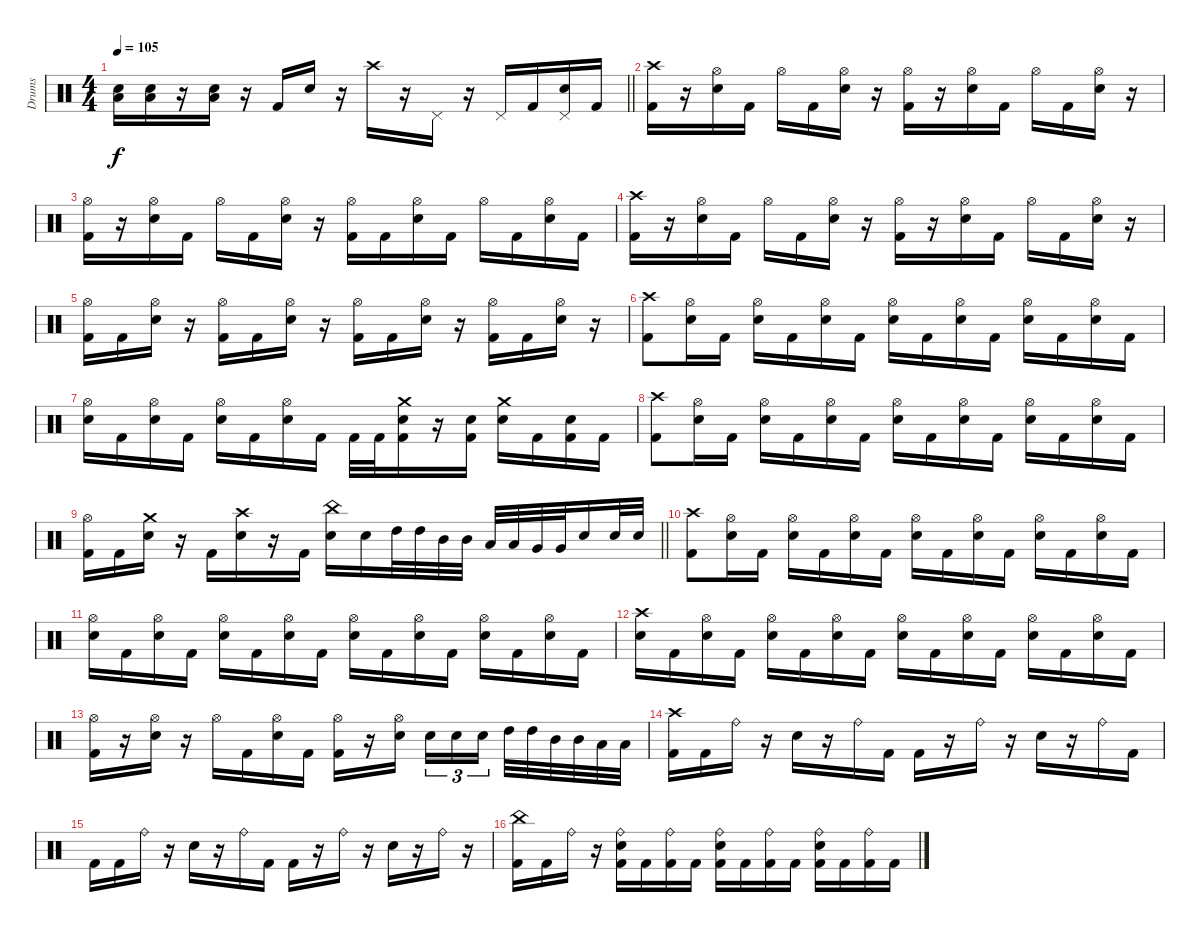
\track ("Drums" "Drums") {instrument percussion}
\staff
\articulation defaults
\ts (4 4)
\tempo 105
\clef neutral
\barLineRight lightlight
\ks c
("Low Floor Tom (hit)" "Electric Snare (hit)").16{dy f} ("Low Floor Tom (hit)" "Electric Snare (hit)").16 r.16 ("Low Floor Tom (hit)" "Electric Snare (hit)").16 r.16 "Kick (hit) 2".16 "Electric Snare (hit)".16 r.16 "Crash high (hit)".16 r.16 "Pedal Hi-Hat (hit)".16 r.16 "Pedal Hi-Hat (hit)".16 "Kick (hit) 2".16 ("Pedal Hi-Hat (hit)" "Electric Snare (hit)").16 "Kick (hit) 2".16 |
("Crash high (hit)" "Kick (hit) 2").16 r.16 ("Hi-Hat (open)" "Electric Snare (hit)").16 "Kick (hit) 2".16 "Hi-Hat (open)".16 "Kick (hit) 2".16 ("Hi-Hat (open)" "Electric Snare (hit)").16 r.16 ("Hi-Hat (open)" "Kick (hit) 2").16 r.16 ("Hi-Hat (open)" "Electric Snare (hit)").16 "Kick (hit) 2".16 "Hi-Hat (open)".16 "Kick (hit) 2".16 ("Hi-Hat (open)" "Electric Snare (hit)").16 r.16 |
("Hi-Hat (open)" "Kick (hit) 2").16 r.16 ("Hi-Hat (open)" "Electric Snare (hit)").16 "Kick (hit) 2".16 "Hi-Hat (open)".16 "Kick (hit) 2".16 ("Hi-Hat (open)" "Electric Snare (hit)").16 r.16 ("Hi-Hat (open)" "Kick (hit) 2").16 "Kick (hit) 2".16 ("Hi-Hat (open)" "Electric Snare (hit)").16 "Kick (hit) 2".16 "Hi-Hat (open)".16 "Kick (hit) 2".16 ("Hi-Hat (open)" "Electric Snare (hit)").16 "Kick (hit) 2".16 |
("Crash high (hit)" "Kick (hit) 2").16 r.16 ("Hi-Hat (open)" "Electric Snare (hit)").16 "Kick (hit) 2".16 "Hi-Hat (open)".16 "Kick (hit) 2".16 ("Hi-Hat (open)" "Electric Snare (hit)").16 r.16 ("Hi-Hat (open)" "Kick (hit) 2").16 r.16 ("Hi-Hat (open)" "Electric Snare (hit)").16 "Kick (hit) 2".16 "Hi-Hat (open)".16 "Kick (hit) 2".16 ("Hi-Hat (open)" "Electric Snare (hit)").16 r.16 |
("Hi-Hat (open)" "Kick (hit) 2").16 "Kick (hit) 2".16 ("Hi-Hat (open)" "Electric Snare (hit)").16 r.16 ("Hi-Hat (open)" "Kick (hit) 2").16 "Kick (hit) 2".16 ("Hi-Hat (open)" "Electric Snare (hit)").16 r.16 ("Hi-Hat (open)" "Kick (hit) 2").16 "Kick (hit) 2".16 ("Hi-Hat (open)" "Electric Snare (hit)").16 r.16 ("Hi-Hat (open)" "Kick (hit) 2").16 "Kick (hit) 2".16 ("Hi-Hat (open)" "Electric Snare (hit)").16 r.16 |
("Crash high (hit)" "Kick (hit) 2").8 ("Hi-Hat (open)" "Electric Snare (hit)").16 "Kick (hit) 2".16 ("Hi-Hat (open)" "Electric Snare (hit)").16 "Kick (hit) 2".16 ("Hi-Hat (open)" "Electric Snare (hit)").16 "Kick (hit) 2".16 ("Hi-Hat (open)" "Electric Snare (hit)").16 "Kick (hit) 2".16 ("Hi-Hat (open)" "Electric Snare (hit)").16 "Kick (hit) 2".16 ("Hi-Hat (open)" "Electric Snare (hit)").16 "Kick (hit) 2".16 ("Hi-Hat (open)" "Electric Snare (hit)").16 "Kick (hit) 2".16 |
("Hi-Hat (open)" "Electric Snare (hit)").16 "Kick (hit) 2".16 ("Hi-Hat (open)" "Electric Snare (hit)").16 "Kick (hit) 2".16 ("Hi-Hat (open)" "Electric Snare (hit)").16 "Kick (hit) 2".16 ("Hi-Hat (open)" "Electric Snare (hit)").16 "Kick (hit) 2".16 "Kick (hit) 2".32 "Kick (hit) 2".32 ("Crash medium (hit)" "Electric Snare (hit)" "Kick (hit) 2").16 r.16 ("Electric Snare (hit)" "Kick (hit) 2").16 ("Crash medium (hit)" "Electric Snare (hit)").16 "Kick (hit) 2".16 ("Electric Snare (hit)" "Kick (hit) 2").16 "Kick (hit) 2".16 |
("Crash high (hit)" "Kick (hit) 2").8 ("Hi-Hat (open)" "Electric Snare (hit)").16 "Kick (hit) 2".16 ("Hi-Hat (open)" "Electric Snare (hit)").16 "Kick (hit) 2".16 ("Hi-Hat (open)" "Electric Snare (hit)").16 "Kick (hit) 2".16 ("Hi-Hat (open)" "Electric Snare (hit)").16 "Kick (hit) 2".16 ("Hi-Hat (open)" "Electric Snare (hit)").16 "Kick (hit) 2".16 ("Hi-Hat (open)" "Electric Snare (hit)").16 "Kick (hit) 2".16 ("Hi-Hat (open)" "Electric Snare (hit)").16 "Kick (hit) 2".16 |
\barLineRight lightlight
("Hi-Hat (open)" "Kick (hit) 2").16 "Kick (hit) 2".16 ("Crash medium (hit)" "Electric Snare (hit)").16 r.16 "Kick (hit) 2".16 ("Crash high (hit)" "Electric Snare (hit)").16 r.16 "Kick (hit) 2".16 ("China (hit)" "Electric Snare (hit)").16 "Electric Snare (hit)".16 "High Tom (hit)".32 "High Tom (hit)".32 "Mid Tom (hit)".32 "Mid Tom (hit)".32 "Low Tom (hit)".32 "Low Tom (hit)".32 "Very Low Tom (hit)".32 "Very Low Tom (hit)".32 "Electric Snare (hit)".16 "Electric Snare (hit)".32 "Electric Snare (hit)".32 |
("Crash high (hit)" "Kick (hit) 2").8 ("Hi-Hat (open)" "Electric Snare (hit)").16 "Kick (hit) 2".16 ("Hi-Hat (open)" "Electric Snare (hit)").16 "Kick (hit) 2".16 ("Hi-Hat (open)" "Electric Snare (hit)").16 "Kick (hit) 2".16 ("Hi-Hat (open)" "Electric Snare (hit)").16 "Kick (hit) 2".16 ("Hi-Hat (open)" "Electric Snare (hit)").16 "Kick (hit) 2".16 ("Hi-Hat (open)" "Electric Snare (hit)").16 "Kick (hit) 2".16 ("Hi-Hat (open)" "Electric Snare (hit)").16 "Kick (hit) 2".16 |
("Hi-Hat (open)" "Electric Snare (hit)").16 "Kick (hit) 2".16 ("Hi-Hat (open)" "Electric Snare (hit)").16 "Kick (hit) 2".16 ("Hi-Hat (open)" "Electric Snare (hit)").16 "Kick (hit) 2".16 ("Hi-Hat (open)" "Electric Snare (hit)").16 "Kick (hit) 2".16 ("Hi-Hat (open)" "Electric Snare (hit)").16 "Kick (hit) 2".16 ("Hi-Hat (open)" "Electric Snare (hit)").16 "Kick (hit) 2".16 ("Hi-Hat (open)" "Electric Snare (hit)").16 "Kick (hit) 2".16 ("Hi-Hat (open)" "Electric Snare (hit)").16 "Kick (hit) 2".16 |
("Crash high (hit)" "Electric Snare (hit)").16 "Kick (hit) 2".16 ("Hi-Hat (open)" "Electric Snare (hit)").16 "Kick (hit) 2".16 ("Hi-Hat (open)" "Electric Snare (hit)").16 "Kick (hit) 2".16 ("Hi-Hat (open)" "Electric Snare (hit)").16 "Kick (hit) 2".16 ("Hi-Hat (open)" "Electric Snare (hit)").16 "Kick (hit) 2".16 ("Hi-Hat (open)" "Electric Snare (hit)").16 "Kick (hit) 2".16 ("Hi-Hat (open)" "Electric Snare (hit)").16 "Kick (hit) 2".16 ("Hi-Hat (open)" "Electric Snare (hit)").16 "Kick (hit) 2".16 |
("Hi-Hat (open)" "Kick (hit) 2").16 r.16 ("Hi-Hat (open)" "Electric Snare (hit)").16 r.16 "Hi-Hat (open)".16 "Kick (hit) 2".16 ("Hi-Hat (open)" "Electric Snare (hit)").16 "Kick (hit) 2".16 ("Hi-Hat (open)" "Kick (hit) 2").16 r.16 ("Hi-Hat (open)" "Electric Snare (hit)").16{beam splitsecondary} "Electric Snare (hit)".16{tu (3 2)} "Electric Snare (hit)".16{tu (3 2)} "Electric Snare (hit)".16{tu (3 2) beam splitsecondary} "High Tom (hit)".32 "High Tom (hit)".32 "Mid Tom (hit)".32 "Mid Tom (hit)".32 "Low Tom (hit)".32 "Low Tom (hit)".32 |
("Crash high (hit)" "Kick (hit) 2").16 "Kick (hit) 2".16 "Ride (bell)".16 r.16 "Electric Snare (hit)".16 r.16 "Ride (bell)".16 "Kick (hit) 2".16 "Kick (hit) 2".16 r.16 "Ride (bell)".16 r.16 "Electric Snare (hit)".16 r.16 "Ride (bell)".16 "Kick (hit) 2".16 |
"Kick (hit) 2".16 "Kick (hit) 2".16 "Ride (bell)".16 r.16 "Electric Snare (hit)".16 r.16 "Ride (bell)".16 "Kick (hit) 2".16 "Kick (hit) 2".16 r.16 "Ride (bell)".16 r.16 "Electric Snare (hit)".16 r.16 "Ride (bell)".16 r.16 |
("China (hit)" "Kick (hit) 2").16 "Kick (hit) 2".16 "Ride (bell)".16 r.16 ("Ride (bell)" "Electric Snare (hit)" "Kick (hit) 2").16 "Kick (hit) 2".16 ("Ride (bell)" "Kick (hit) 2").16 "Kick (hit) 2".16 ("Ride (bell)" "Electric Snare (hit)" "Kick (hit) 2").16 "Kick (hit) 2".16 ("Ride (bell)" "Kick (hit) 2").16 "Kick (hit) 2".16 ("Ride (bell)" "Electric Snare (hit)" "Kick (hit) 2").16 "Kick (hit) 2".16 ("Ride (bell)" "Kick (hit) 2").16 "Kick (hit) 2".16
